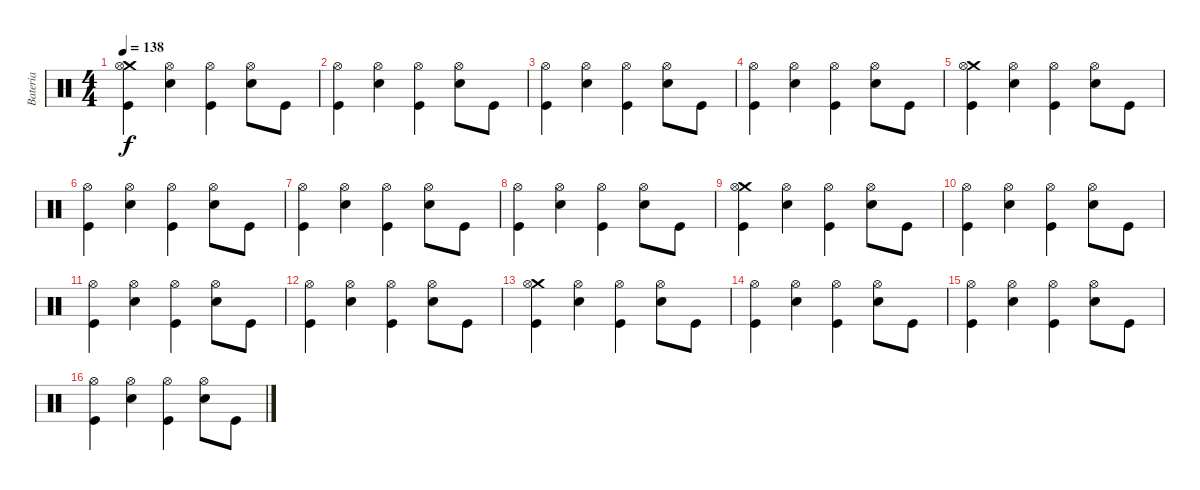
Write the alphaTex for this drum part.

\track ("Bateria" "Bateria") {instrument percussion}
\staff {score}
\articulation defaults
\ts (4 4)
\tempo 138
\clef neutral
\ks c
("Crash medium (hit)" "Hi-Hat (open)" "Kick (hit)").4{dy f} ("Snare (hit) 2" "Hi-Hat (open)").4 ("Hi-Hat (open)" "Kick (hit)").4 ("Snare (hit) 2" "Hi-Hat (open)").8 "Kick (hit)".8 |
("Hi-Hat (open)" "Kick (hit)").4 ("Snare (hit) 2" "Hi-Hat (open)").4 ("Hi-Hat (open)" "Kick (hit)").4 ("Snare (hit) 2" "Hi-Hat (open)").8 "Kick (hit)".8 |
("Hi-Hat (open)" "Kick (hit)").4 ("Snare (hit) 2" "Hi-Hat (open)").4 ("Hi-Hat (open)" "Kick (hit)").4 ("Snare (hit) 2" "Hi-Hat (open)").8 "Kick (hit)".8 |
("Hi-Hat (open)" "Kick (hit)").4 ("Snare (hit) 2" "Hi-Hat (open)").4 ("Hi-Hat (open)" "Kick (hit)").4 ("Snare (hit) 2" "Hi-Hat (open)").8 "Kick (hit)".8 |
("Crash medium (hit)" "Hi-Hat (open)" "Kick (hit)").4 ("Snare (hit) 2" "Hi-Hat (open)").4 ("Hi-Hat (open)" "Kick (hit)").4 ("Snare (hit) 2" "Hi-Hat (open)").8 "Kick (hit)".8 |
("Hi-Hat (open)" "Kick (hit)").4 ("Snare (hit) 2" "Hi-Hat (open)").4 ("Hi-Hat (open)" "Kick (hit)").4 ("Snare (hit) 2" "Hi-Hat (open)").8 "Kick (hit)".8 |
("Hi-Hat (open)" "Kick (hit)").4 ("Snare (hit) 2" "Hi-Hat (open)").4 ("Hi-Hat (open)" "Kick (hit)").4 ("Snare (hit) 2" "Hi-Hat (open)").8 "Kick (hit)".8 |
("Hi-Hat (open)" "Kick (hit)").4 ("Snare (hit) 2" "Hi-Hat (open)").4 ("Hi-Hat (open)" "Kick (hit)").4 ("Snare (hit) 2" "Hi-Hat (open)").8 "Kick (hit)".8 |
("Crash medium (hit)" "Hi-Hat (open)" "Kick (hit)").4 ("Snare (hit) 2" "Hi-Hat (open)").4 ("Hi-Hat (open)" "Kick (hit)").4 ("Snare (hit) 2" "Hi-Hat (open)").8 "Kick (hit)".8 |
("Hi-Hat (open)" "Kick (hit)").4 ("Snare (hit) 2" "Hi-Hat (open)").4 ("Hi-Hat (open)" "Kick (hit)").4 ("Snare (hit) 2" "Hi-Hat (open)").8 "Kick (hit)".8 |
("Hi-Hat (open)" "Kick (hit)").4 ("Snare (hit) 2" "Hi-Hat (open)").4 ("Hi-Hat (open)" "Kick (hit)").4 ("Snare (hit) 2" "Hi-Hat (open)").8 "Kick (hit)".8 |
("Hi-Hat (open)" "Kick (hit)").4 ("Snare (hit) 2" "Hi-Hat (open)").4 ("Hi-Hat (open)" "Kick (hit)").4 ("Snare (hit) 2" "Hi-Hat (open)").8 "Kick (hit)".8 |
("Crash medium (hit)" "Hi-Hat (open)" "Kick (hit)").4 ("Snare (hit) 2" "Hi-Hat (open)").4 ("Hi-Hat (open)" "Kick (hit)").4 ("Snare (hit) 2" "Hi-Hat (open)").8 "Kick (hit)".8 |
("Hi-Hat (open)" "Kick (hit)").4 ("Snare (hit) 2" "Hi-Hat (open)").4 ("Hi-Hat (open)" "Kick (hit)").4 ("Snare (hit) 2" "Hi-Hat (open)").8 "Kick (hit)".8 |
("Hi-Hat (open)" "Kick (hit)").4 ("Snare (hit) 2" "Hi-Hat (open)").4 ("Hi-Hat (open)" "Kick (hit)").4 ("Snare (hit) 2" "Hi-Hat (open)").8 "Kick (hit)".8 |
("Hi-Hat (open)" "Kick (hit)").4 ("Snare (hit) 2" "Hi-Hat (open)").4 ("Hi-Hat (open)" "Kick (hit)").4 ("Snare (hit) 2" "Hi-Hat (open)").8 "Kick (hit)".8
